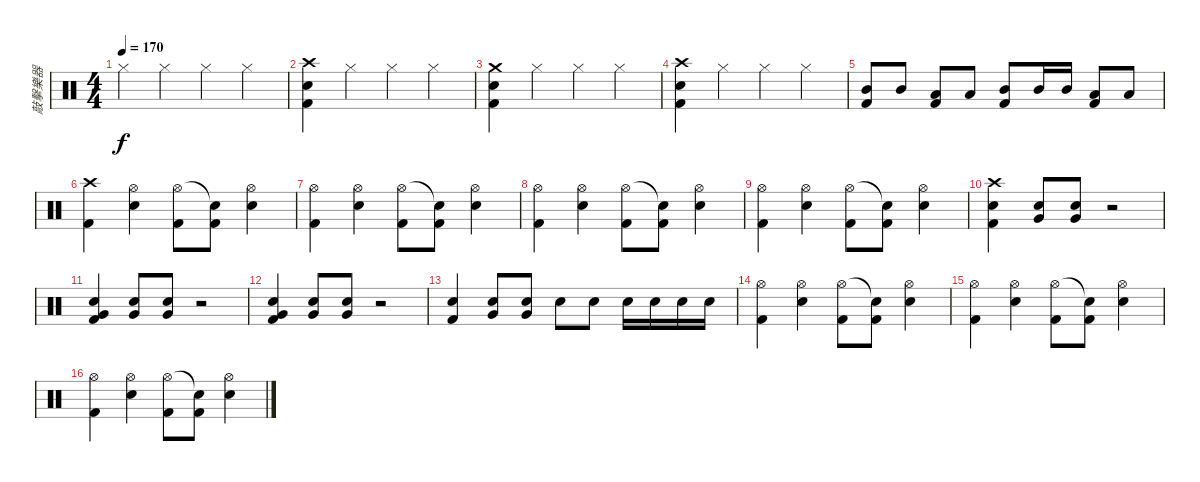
\track ("敲擊樂器" "敲擊樂器") {instrument percussion}
\staff {score}
\articulation defaults
\ts (4 4)
\tempo 170
\clef neutral
\ks c "Hi-Hat (closed)".4{dy f} "Hi-Hat (closed)".4 "Hi-Hat (closed)".4 "Hi-Hat (closed)".4
|
("Crash high (hit)" "Snare (hit) 2" "Kick (hit) 2").4 "Hi-Hat (closed)".4 "Hi-Hat (closed)".4 "Hi-Hat (closed)".4 |
("Crash medium (hit)" "Snare (hit) 2" "Kick (hit) 2").4 "Hi-Hat (closed)".4 "Hi-Hat (closed)".4 "Hi-Hat (closed)".4 |
("Crash high (hit)" "Snare (hit) 2" "Kick (hit) 2").4 "Hi-Hat (closed)".4 "Hi-Hat (closed)".4 "Hi-Hat (closed)".4 |
("Mid Tom (hit)" "Kick (hit) 2").8 "Mid Tom (hit)".8 ("Low Tom (hit)" "Kick (hit) 2").8 "Low Tom (hit)".8 ("Mid Tom (hit)" "Kick (hit) 2").8 "Mid Tom (hit)".16 "Mid Tom (hit)".16 ("Low Tom (hit)" "Kick (hit) 2").8 "Low Tom (hit)".8 |
("Crash high (hit)" "Kick (hit) 2").4 ("Hi-Hat (open)" "Snare (hit) 2").4 ("Hi-Hat (open)" "Kick (hit) 2").8 ("Snare (hit)"{t} "Kick (hit) 2").8 ("Hi-Hat (open)" "Snare (hit) 2").4 |
("Hi-Hat (open)" "Kick (hit) 2").4 ("Hi-Hat (open)" "Snare (hit) 2").4 ("Hi-Hat (open)" "Kick (hit) 2").8 ("Snare (hit)"{t} "Kick (hit) 2").8 ("Hi-Hat (open)" "Snare (hit) 2").4 |
("Hi-Hat (open)" "Kick (hit) 2").4 ("Hi-Hat (open)" "Snare (hit) 2").4 ("Hi-Hat (open)" "Kick (hit) 2").8 ("Snare (hit)"{t} "Kick (hit) 2").8 ("Hi-Hat (open)" "Snare (hit) 2").4 |
("Hi-Hat (open)" "Kick (hit) 2").4 ("Hi-Hat (open)" "Snare (hit) 2").4 ("Hi-Hat (open)" "Kick (hit) 2").8 ("Snare (hit)"{t} "Kick (hit) 2").8 ("Hi-Hat (open)" "Snare (hit) 2").4 |
("Crash high (hit)" "Snare (hit) 2" "Kick (hit) 2").4 ("Snare (hit) 2" "Very Low Tom (hit)").8 ("Snare (hit) 2" "Very Low Tom (hit)").8 r.2 |
("Snare (hit) 2" "Very Low Tom (hit)" "Kick (hit) 2").4 ("Snare (hit) 2" "Very Low Tom (hit)").8 ("Snare (hit) 2" "Very Low Tom (hit)").8 r.2 |
("Snare (hit) 2" "Very Low Tom (hit)" "Kick (hit) 2").4 ("Snare (hit) 2" "Very Low Tom (hit)").8 ("Snare (hit) 2" "Very Low Tom (hit)").8 r.2 |
("Snare (hit) 2" "Kick (hit) 2").4 ("Snare (hit) 2" "Very Low Tom (hit)").8 ("Snare (hit) 2" "Very Low Tom (hit)").8 "Snare (hit) 2".8 "Snare (hit) 2".8 "Snare (hit) 2".16 "Snare (hit) 2".16 "Snare (hit) 2".16 "Snare (hit) 2".16 |
("Hi-Hat (open)" "Kick (hit) 2").4 ("Hi-Hat (open)" "Snare (hit) 2").4 ("Hi-Hat (open)" "Kick (hit) 2").8 ("Snare (hit)"{t} "Kick (hit) 2").8 ("Hi-Hat (open)" "Snare (hit) 2").4 |
("Hi-Hat (open)" "Kick (hit) 2").4 ("Hi-Hat (open)" "Snare (hit) 2").4 ("Hi-Hat (open)" "Kick (hit) 2").8 ("Snare (hit)"{t} "Kick (hit) 2").8 ("Hi-Hat (open)" "Snare (hit) 2").4 |
("Hi-Hat (open)" "Kick (hit) 2").4 ("Hi-Hat (open)" "Snare (hit) 2").4 ("Hi-Hat (open)" "Kick (hit) 2").8 ("Snare (hit)"{t} "Kick (hit) 2").8 ("Hi-Hat (open)" "Snare (hit) 2").4
